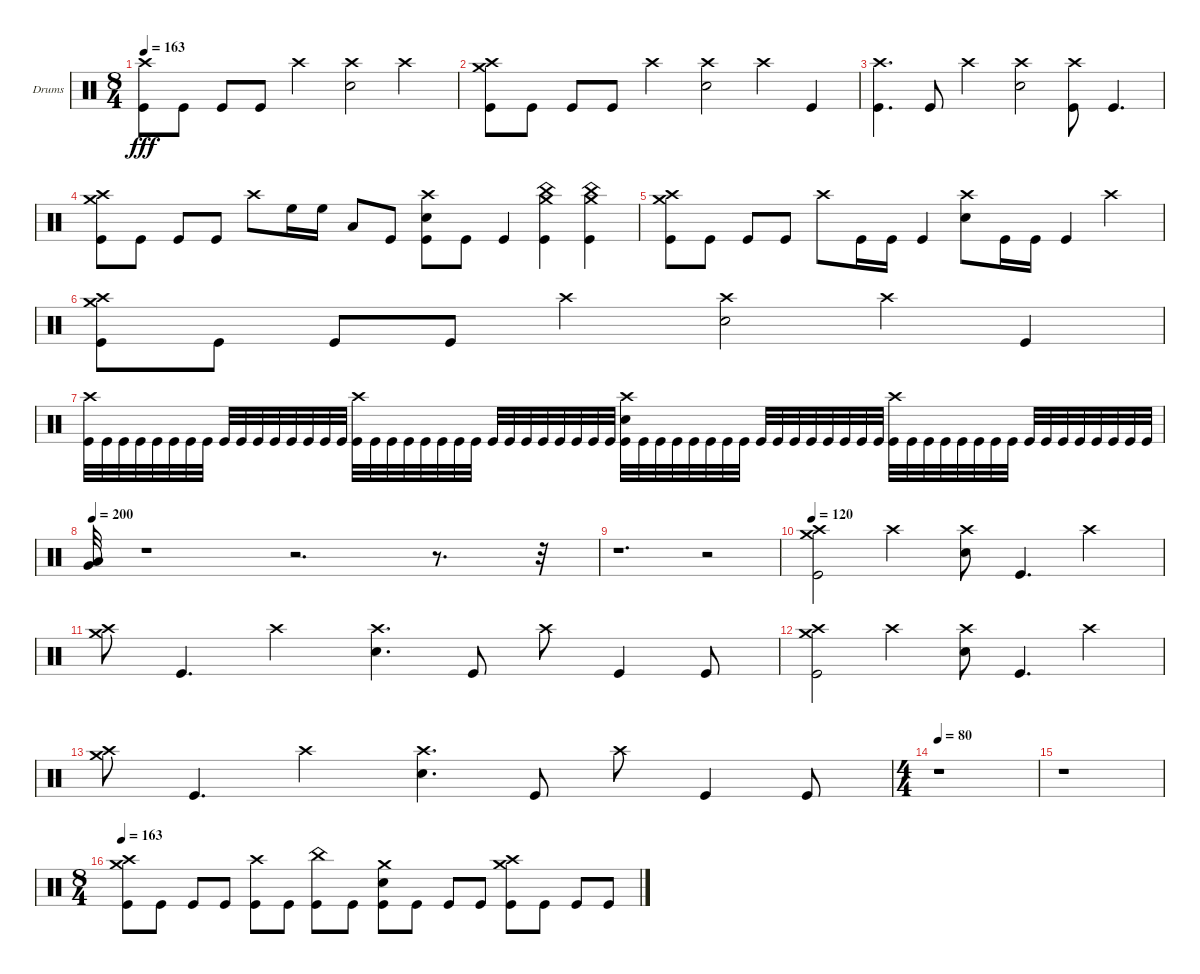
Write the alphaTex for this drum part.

\defaultSystemsLayout 4
\bracketExtendMode groupsimilarinstruments
\firstSystemTrackNameOrientation horizontal
\otherSystemsTrackNameOrientation horizontal
\track ("Drumkit" "Drums") {instrument percussion}
\staff {score}
\articulation defaults
\ts (8 4)
\tempo 163
\clef neutral
\ks c
("Crash high (hit)" "Kick (hit)").8{dy fff} "Kick (hit)".8 "Kick (hit)".8 "Kick (hit)".8 "Crash high (hit)".2 ("Crash high (hit)" "Snare (hit) 2").2 "Crash high (hit)".2 |
("Crash high (hit)" "Crash medium (hit)" "Kick (hit)").8 "Kick (hit)".8 "Kick (hit)".8 "Kick (hit)".8 "Crash high (hit)".2 ("Crash high (hit)" "Snare (hit) 2").2 "Crash high (hit)".4 "Kick (hit)".4 |
("Kick (hit)" "Crash high (hit)").4{d} "Kick (hit)".8 "Crash high (hit)".2 ("Crash high (hit)" "Snare (hit) 2").2 ("Crash high (hit)" "Kick (hit)").8 "Kick (hit)".4{d} |
("Kick (hit)" "Crash high (hit)" "Crash medium (hit)").8 "Kick (hit)".8 "Kick (hit)".8 "Kick (hit)".8 "Crash high (hit)".8 "High Floor Tom (hit)".16 "High Floor Tom (hit)".16 "Low Tom (hit)".8 "Kick (hit)".8 ("Kick (hit)" "Snare (hit) 2" "Crash high (hit)").8 "Kick (hit)".8 "Kick (hit)".4 ("Kick (hit)" "Crash medium (hit)" "China (hit)").4 ("Kick (hit)" "Crash medium (hit)" "China (hit)").4 |
("Kick (hit)" "Crash high (hit)" "Crash medium (hit)").8 "Kick (hit)".8 "Kick (hit)".8 "Kick (hit)".8 "Crash high (hit)".8 "Kick (hit)".16 "Kick (hit)".16 "Kick (hit)".4 ("Snare (hit) 2" "Crash high (hit)").8 "Kick (hit)".16 "Kick (hit)".16 "Kick (hit)".4 "Crash high (hit)".2 |
("Kick (hit)" "Crash high (hit)" "Crash medium (hit)").8 "Kick (hit)".8 "Kick (hit)".8 "Kick (hit)".8 "Crash high (hit)".2 ("Crash high (hit)" "Snare (hit) 2").2 "Crash high (hit)".4 "Kick (hit)".4 |
("Kick (hit)" "Crash high (hit)").32 "Kick (hit)".32 "Kick (hit)".32 "Kick (hit)".32 "Kick (hit)".32 "Kick (hit)".32 "Kick (hit)".32 "Kick (hit)".32 "Kick (hit)".32 "Kick (hit)".32 "Kick (hit)".32 "Kick (hit)".32 "Kick (hit)".32 "Kick (hit)".32 "Kick (hit)".32 "Kick (hit)".32 ("Kick (hit)" "Crash high (hit)").32 "Kick (hit)".32 "Kick (hit)".32 "Kick (hit)".32 "Kick (hit)".32 "Kick (hit)".32 "Kick (hit)".32 "Kick (hit)".32 "Kick (hit)".32 "Kick (hit)".32 "Kick (hit)".32 "Kick (hit)".32 "Kick (hit)".32 "Kick (hit)".32 "Kick (hit)".32 "Kick (hit)".32 ("Kick (hit)" "Crash high (hit)" "Snare (hit) 2").32 "Kick (hit)".32 "Kick (hit)".32 "Kick (hit)".32 "Kick (hit)".32 "Kick (hit)".32 "Kick (hit)".32 "Kick (hit)".32 "Kick (hit)".32 "Kick (hit)".32 "Kick (hit)".32 "Kick (hit)".32 "Kick (hit)".32 "Kick (hit)".32 "Kick (hit)".32 "Kick (hit)".32 ("Kick (hit)" "Crash high (hit)").32 "Kick (hit)".32 "Kick (hit)".32 "Kick (hit)".32 "Kick (hit)".32 "Kick (hit)".32 "Kick (hit)".32 "Kick (hit)".32 "Kick (hit)".32 "Kick (hit)".32 "Kick (hit)".32 "Kick (hit)".32 "Kick (hit)".32 "Kick (hit)".32 "Kick (hit)".32 "Kick (hit)".32 |
\tempo 200
("Very Low Tom (hit)" "Low Tom (hit)").32 r.1 r.2{d} r.8{d} r.32 |
r.1{d} r.2 |
\tempo 120
("Kick (hit)" "Crash medium (hit)" "Crash high (hit)").2 "Crash high (hit)".2 ("Snare (hit) 2" "Crash high (hit)").8 "Kick (hit)".4{d} "Crash high (hit)".2 |
("Crash medium (hit)" "Crash high (hit)").8 "Kick (hit)".4{d} "Crash high (hit)".2 ("Snare (hit) 2" "Crash high (hit)").4{d} "Kick (hit)".8 "Crash high (hit)".8 "Kick (hit)".4 "Kick (hit)".8 |
("Kick (hit)" "Crash medium (hit)" "Crash high (hit)").2 "Crash high (hit)".2 ("Snare (hit) 2" "Crash high (hit)").8 "Kick (hit)".4{d} "Crash high (hit)".2 |
("Crash medium (hit)" "Crash high (hit)").8 "Kick (hit)".4{d} "Crash high (hit)".2 ("Snare (hit) 2" "Crash high (hit)").4{d} "Kick (hit)".8 "Crash high (hit)".8 "Kick (hit)".4 "Kick (hit)".8 |
\ts (4 4)
\tempo 80
r.1 |
r.1 |
\ts (8 4)
\tempo 163
("Kick (hit)" "Crash high (hit)" "Crash medium (hit)").8 "Kick (hit)".8 "Kick (hit)".8 "Kick (hit)".8 ("Kick (hit)" "Crash high (hit)").8 "Kick (hit)".8 ("Kick (hit)" "China (hit)").8 "Kick (hit)".8 ("Kick (hit)" "Snare (hit) 2" "Crash medium (hit)").8 "Kick (hit)".8 "Kick (hit)".8 "Kick (hit)".8 ("Kick (hit)" "Crash medium (hit)" "Crash high (hit)").8 "Kick (hit)".8 "Kick (hit)".8 "Kick (hit)".8
